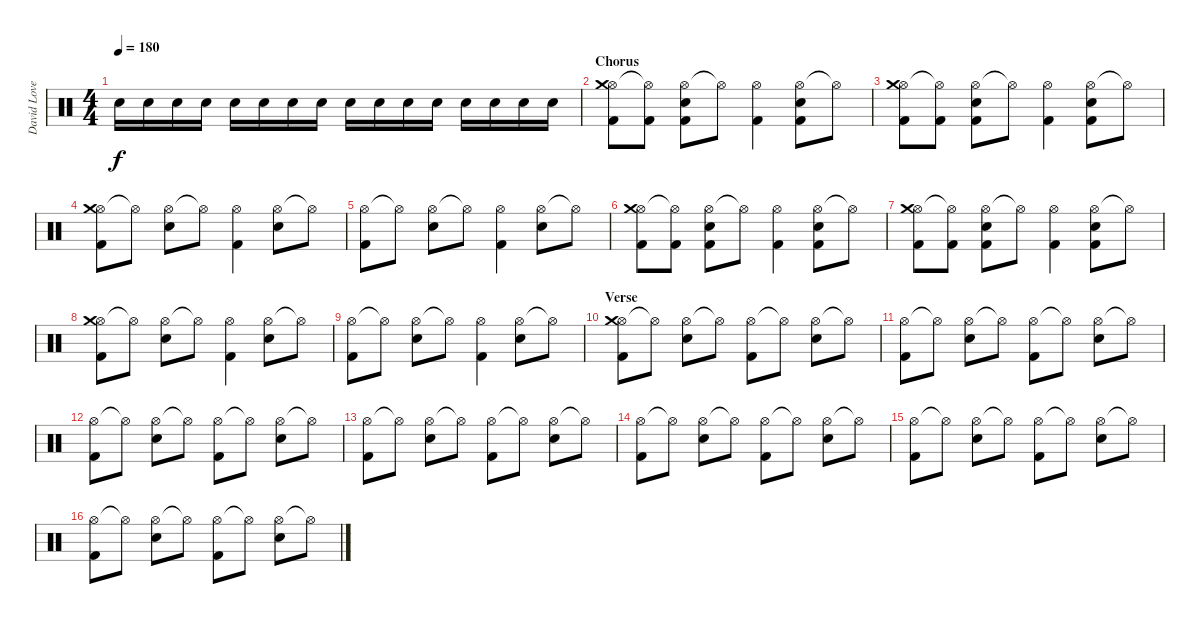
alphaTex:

\track ("David Lovering" "David Love") {instrument percussion}
\staff {score}
\articulation defaults
\ts (4 4)
\tempo 180
\clef neutral
\ks c "Snare (hit) 2".16{dy f} "Snare (hit) 2".16 "Snare (hit) 2".16 "Snare (hit) 2".16 "Snare (hit) 2".16 "Snare (hit) 2".16 "Snare (hit) 2".16 "Snare (hit) 2".16 "Snare (hit) 2".16 "Snare (hit) 2".16 "Snare (hit) 2".16 "Snare (hit) 2".16 "Snare (hit) 2".16 "Snare (hit) 2".16 "Snare (hit) 2".16 "Snare (hit) 2".16
|
\section ("" "Chorus")
("Hi-Hat (open)" "Crash medium (hit)" "Kick (hit) 2").8 ("Hi-Hat (open)"{t} "Kick (hit) 2").8 ("Hi-Hat (open)" "Snare (hit) 2" "Kick (hit) 2").8 "Hi-Hat (open)"{t}.8 ("Hi-Hat (open)" "Kick (hit) 2").4 ("Hi-Hat (open)" "Snare (hit) 2" "Kick (hit) 2").8 "Hi-Hat (open)"{t}.8 |
("Hi-Hat (open)" "Crash medium (hit)" "Kick (hit) 2").8 ("Hi-Hat (open)"{t} "Kick (hit) 2").8 ("Hi-Hat (open)" "Snare (hit) 2" "Kick (hit) 2").8 "Hi-Hat (open)"{t}.8 ("Hi-Hat (open)" "Kick (hit) 2").4 ("Hi-Hat (open)" "Snare (hit) 2" "Kick (hit) 2").8 "Hi-Hat (open)"{t}.8 |
("Hi-Hat (open)" "Crash medium (hit)" "Kick (hit) 2").8 "Hi-Hat (open)"{t}.8 ("Hi-Hat (open)" "Snare (hit) 2").8 "Hi-Hat (open)"{t}.8 ("Hi-Hat (open)" "Kick (hit) 2").4 ("Hi-Hat (open)" "Snare (hit) 2").8 "Hi-Hat (open)"{t}.8 |
("Hi-Hat (open)" "Kick (hit) 2").8 "Hi-Hat (open)"{t}.8 ("Hi-Hat (open)" "Snare (hit) 2").8 "Hi-Hat (open)"{t}.8 ("Hi-Hat (open)" "Kick (hit) 2").4 ("Hi-Hat (open)" "Snare (hit) 2").8 "Hi-Hat (open)"{t}.8 |
("Hi-Hat (open)" "Crash medium (hit)" "Kick (hit) 2").8 ("Hi-Hat (open)"{t} "Kick (hit) 2").8 ("Hi-Hat (open)" "Snare (hit) 2" "Kick (hit) 2").8 "Hi-Hat (open)"{t}.8 ("Hi-Hat (open)" "Kick (hit) 2").4 ("Hi-Hat (open)" "Snare (hit) 2" "Kick (hit) 2").8 "Hi-Hat (open)"{t}.8 |
("Hi-Hat (open)" "Crash medium (hit)" "Kick (hit) 2").8 ("Hi-Hat (open)"{t} "Kick (hit) 2").8 ("Hi-Hat (open)" "Snare (hit) 2" "Kick (hit) 2").8 "Hi-Hat (open)"{t}.8 ("Hi-Hat (open)" "Kick (hit) 2").4 ("Hi-Hat (open)" "Snare (hit) 2" "Kick (hit) 2").8 "Hi-Hat (open)"{t}.8 |
("Hi-Hat (open)" "Crash medium (hit)" "Kick (hit) 2").8 "Hi-Hat (open)"{t}.8 ("Hi-Hat (open)" "Snare (hit) 2").8 "Hi-Hat (open)"{t}.8 ("Hi-Hat (open)" "Kick (hit) 2").4 ("Hi-Hat (open)" "Snare (hit) 2").8 "Hi-Hat (open)"{t}.8 |
("Hi-Hat (open)" "Kick (hit) 2").8 "Hi-Hat (open)"{t}.8 ("Hi-Hat (open)" "Snare (hit) 2").8 "Hi-Hat (open)"{t}.8 ("Hi-Hat (open)" "Kick (hit) 2").4 ("Hi-Hat (open)" "Snare (hit) 2").8 "Hi-Hat (open)"{t}.8 |
\section ("" "Verse")
("Hi-Hat (open)" "Crash medium (hit)" "Kick (hit) 2").8 "Hi-Hat (open)"{t}.8 ("Hi-Hat (open)" "Snare (hit) 2").8 "Hi-Hat (open)"{t}.8 ("Hi-Hat (open)" "Kick (hit) 2").8 "Hi-Hat (open)"{t}.8 ("Hi-Hat (open)" "Snare (hit) 2").8 "Hi-Hat (open)"{t}.8 |
("Hi-Hat (open)" "Kick (hit) 2").8 "Hi-Hat (open)"{t}.8 ("Hi-Hat (open)" "Snare (hit) 2").8 "Hi-Hat (open)"{t}.8 ("Hi-Hat (open)" "Kick (hit) 2").8 "Hi-Hat (open)"{t}.8 ("Hi-Hat (open)" "Snare (hit) 2").8 "Hi-Hat (open)"{t}.8 |
("Hi-Hat (open)" "Kick (hit) 2").8 "Hi-Hat (open)"{t}.8 ("Hi-Hat (open)" "Snare (hit) 2").8 "Hi-Hat (open)"{t}.8 ("Hi-Hat (open)" "Kick (hit) 2").8 "Hi-Hat (open)"{t}.8 ("Hi-Hat (open)" "Snare (hit) 2").8 "Hi-Hat (open)"{t}.8 |
("Hi-Hat (open)" "Kick (hit) 2").8 "Hi-Hat (open)"{t}.8 ("Hi-Hat (open)" "Snare (hit) 2").8 "Hi-Hat (open)"{t}.8 ("Hi-Hat (open)" "Kick (hit) 2").8 "Hi-Hat (open)"{t}.8 ("Hi-Hat (open)" "Snare (hit) 2").8 "Hi-Hat (open)"{t}.8 |
("Hi-Hat (open)" "Kick (hit) 2").8 "Hi-Hat (open)"{t}.8 ("Hi-Hat (open)" "Snare (hit) 2").8 "Hi-Hat (open)"{t}.8 ("Hi-Hat (open)" "Kick (hit) 2").8 "Hi-Hat (open)"{t}.8 ("Hi-Hat (open)" "Snare (hit) 2").8 "Hi-Hat (open)"{t}.8 |
("Hi-Hat (open)" "Kick (hit) 2").8 "Hi-Hat (open)"{t}.8 ("Hi-Hat (open)" "Snare (hit) 2").8 "Hi-Hat (open)"{t}.8 ("Hi-Hat (open)" "Kick (hit) 2").8 "Hi-Hat (open)"{t}.8 ("Hi-Hat (open)" "Snare (hit) 2").8 "Hi-Hat (open)"{t}.8 |
("Hi-Hat (open)" "Kick (hit) 2").8 "Hi-Hat (open)"{t}.8 ("Hi-Hat (open)" "Snare (hit) 2").8 "Hi-Hat (open)"{t}.8 ("Hi-Hat (open)" "Kick (hit) 2").8 "Hi-Hat (open)"{t}.8 ("Hi-Hat (open)" "Snare (hit) 2").8 "Hi-Hat (open)"{t}.8
